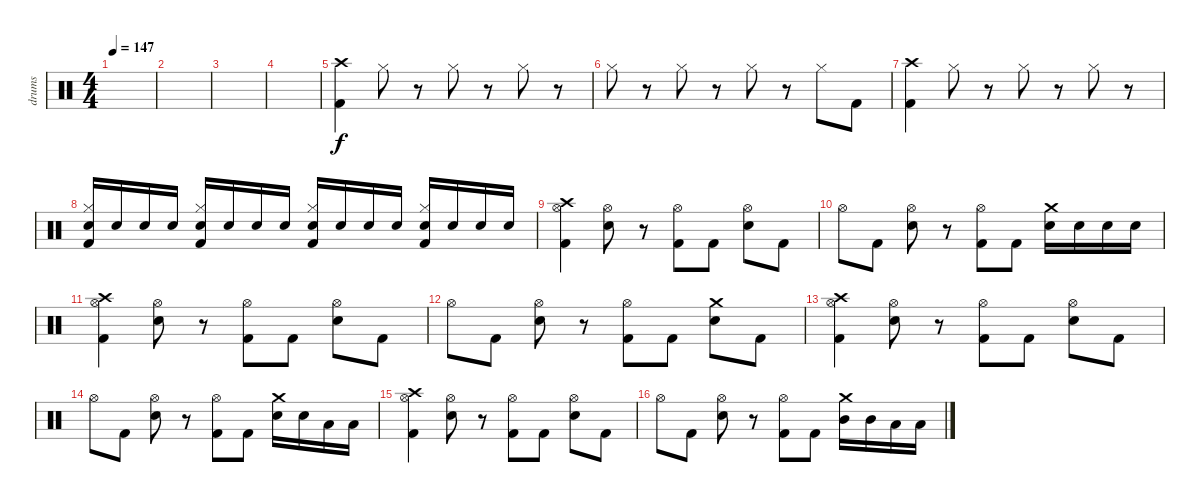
\track ("drums" "drums") {instrument percussion}
\staff {score}
\articulation defaults
\ts (4 4)
\tempo 147
\clef neutral
\ks c
|
|
|
|
("Crash high (hit)" "Kick (hit) 2").4 "Hi-Hat (closed)".8 r.8 "Hi-Hat (closed)".8 r.8 "Hi-Hat (closed)".8 r.8 |
"Hi-Hat (closed)".8 r.8 "Hi-Hat (closed)".8 r.8 "Hi-Hat (closed)".8 r.8 "Hi-Hat (closed)".8 "Kick (hit) 2".8 |
("Crash high (hit)" "Kick (hit) 2").4 "Hi-Hat (closed)".8 r.8 "Hi-Hat (closed)".8 r.8 "Hi-Hat (closed)".8 r.8 |
("Hi-Hat (closed)" "Electric Snare (hit)" "Kick (hit) 2").16 "Electric Snare (hit)".16 "Electric Snare (hit)".16 "Electric Snare (hit)".16 ("Hi-Hat (closed)" "Electric Snare (hit)" "Kick (hit) 2").16 "Electric Snare (hit)".16 "Electric Snare (hit)".16 "Electric Snare (hit)".16 ("Hi-Hat (closed)" "Electric Snare (hit)" "Kick (hit) 2").16 "Electric Snare (hit)".16 "Electric Snare (hit)".16 "Electric Snare (hit)".16 ("Hi-Hat (closed)" "Electric Snare (hit)" "Kick (hit) 2").16 "Electric Snare (hit)".16 "Electric Snare (hit)".16 "Electric Snare (hit)".16 |
("Crash high (hit)" "Hi-Hat (open)" "Kick (hit) 2").4 ("Hi-Hat (open)" "Electric Snare (hit)").8 r.8 ("Hi-Hat (open)" "Kick (hit) 2").8 "Kick (hit) 2".8 ("Hi-Hat (open)" "Electric Snare (hit)").8 "Kick (hit) 2".8 |
"Hi-Hat (open)".8 "Kick (hit) 2".8 ("Hi-Hat (open)" "Electric Snare (hit)").8 r.8 ("Hi-Hat (open)" "Kick (hit) 2").8 "Kick (hit) 2".8 ("Crash medium (hit)" "Electric Snare (hit)").16 "Electric Snare (hit)".16 "Electric Snare (hit)".16 "Electric Snare (hit)".16 |
("Crash high (hit)" "Hi-Hat (open)" "Kick (hit) 2").4 ("Hi-Hat (open)" "Electric Snare (hit)").8 r.8 ("Hi-Hat (open)" "Kick (hit) 2").8 "Kick (hit) 2".8 ("Hi-Hat (open)" "Electric Snare (hit)").8 "Kick (hit) 2".8 |
"Hi-Hat (open)".8 "Kick (hit) 2".8 ("Hi-Hat (open)" "Electric Snare (hit)").8 r.8 ("Hi-Hat (open)" "Kick (hit) 2").8 "Kick (hit) 2".8 ("Crash medium (hit)" "Electric Snare (hit)").8 "Kick (hit) 2".8 |
("Crash high (hit)" "Hi-Hat (open)" "Kick (hit) 2").4 ("Hi-Hat (open)" "Electric Snare (hit)").8 r.8 ("Hi-Hat (open)" "Kick (hit) 2").8 "Kick (hit) 2".8 ("Hi-Hat (open)" "Electric Snare (hit)").8 "Kick (hit) 2".8 |
"Hi-Hat (open)".8 "Kick (hit) 2".8 ("Hi-Hat (open)" "Electric Snare (hit)").8 r.8 ("Hi-Hat (open)" "Kick (hit) 2").8 "Kick (hit) 2".8 ("Crash medium (hit)" "Electric Snare (hit)").16 "Electric Snare (hit)".16 "Low Tom (hit)".16 "Low Tom (hit)".16 |
("Crash high (hit)" "Hi-Hat (open)" "Kick (hit) 2").4 ("Hi-Hat (open)" "Electric Snare (hit)").8 r.8 ("Hi-Hat (open)" "Kick (hit) 2").8 "Kick (hit) 2".8 ("Hi-Hat (open)" "Electric Snare (hit)").8 "Kick (hit) 2".8 |
"Hi-Hat (open)".8 "Kick (hit) 2".8 ("Hi-Hat (open)" "Electric Snare (hit)").8 r.8 ("Hi-Hat (open)" "Kick (hit) 2").8 "Kick (hit) 2".8 ("Crash medium (hit)" "Mid Tom (hit)").16 "Mid Tom (hit)".16 "Low Tom (hit)".16 "Low Tom (hit)".16
